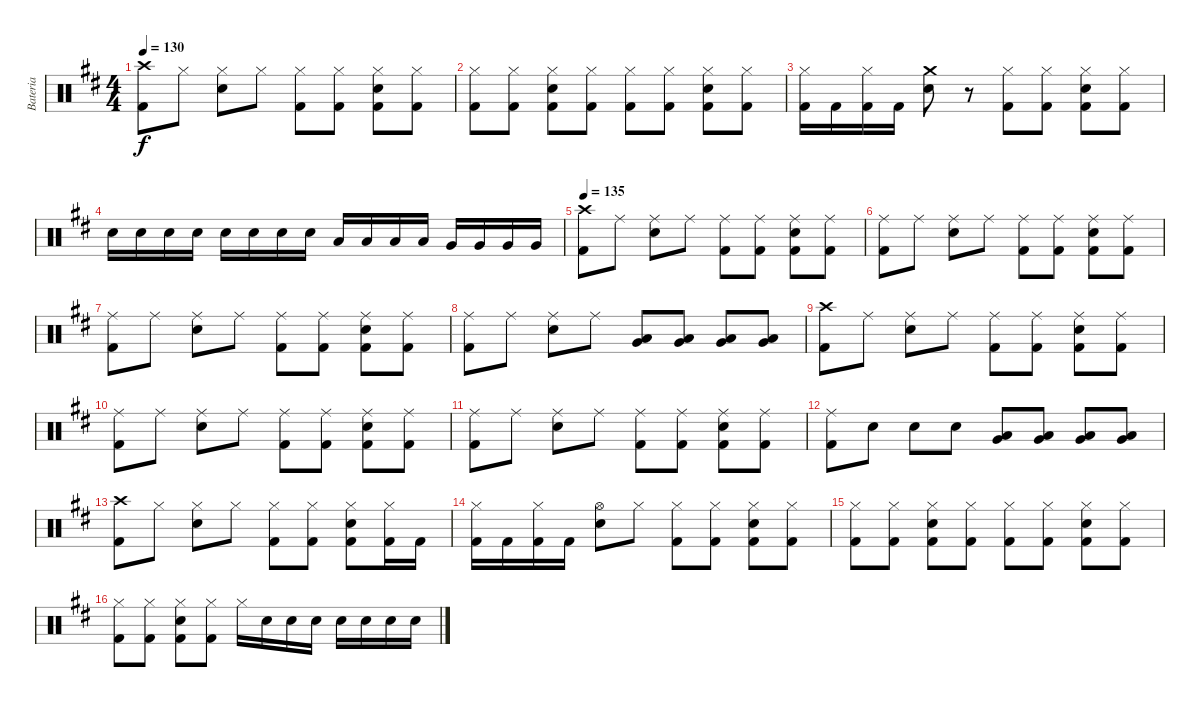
\track ("Bateria" "Bateria") {instrument percussion}
\staff {score}
\articulation defaults
\ts (4 4)
\tempo 130
\clef neutral
\ks d
("Crash high (hit)" "Kick (hit) 2").8{dy f} "Hi-Hat (closed)".8 ("Hi-Hat (closed)" "Snare (hit) 2").8 "Hi-Hat (closed)".8 ("Hi-Hat (closed)" "Kick (hit) 2").8 ("Hi-Hat (closed)" "Kick (hit) 2").8 ("Hi-Hat (closed)" "Snare (hit) 2" "Kick (hit) 2").8 ("Hi-Hat (closed)" "Kick (hit) 2").8 |
("Hi-Hat (closed)" "Kick (hit) 2").8 ("Hi-Hat (closed)" "Kick (hit) 2").8 ("Hi-Hat (closed)" "Snare (hit) 2" "Kick (hit) 2").8 ("Hi-Hat (closed)" "Kick (hit) 2").8 ("Hi-Hat (closed)" "Kick (hit) 2").8 ("Hi-Hat (closed)" "Kick (hit) 2").8 ("Hi-Hat (closed)" "Snare (hit) 2" "Kick (hit) 2").8 ("Hi-Hat (closed)" "Kick (hit) 2").8 |
("Hi-Hat (closed)" "Kick (hit) 2").16 "Kick (hit) 2".16 ("Hi-Hat (closed)" "Kick (hit) 2").16 "Kick (hit) 2".16 ("Crash medium (hit)" "Snare (hit) 2").8 r.8 ("Hi-Hat (closed)" "Kick (hit) 2").8 ("Hi-Hat (closed)" "Kick (hit) 2").8 ("Hi-Hat (closed)" "Snare (hit) 2" "Kick (hit) 2").8 ("Hi-Hat (closed)" "Kick (hit) 2").8 |
"Snare (hit) 2".16 "Snare (hit) 2".16 "Snare (hit) 2".16 "Snare (hit) 2".16 "Snare (hit) 2".16 "Snare (hit) 2".16 "Snare (hit) 2".16 "Snare (hit) 2".16 "Low Tom (hit)".16 "Low Tom (hit)".16 "Low Tom (hit)".16 "Low Tom (hit)".16 "Very Low Tom (hit)".16 "Very Low Tom (hit)".16 "Very Low Tom (hit)".16 "Very Low Tom (hit)".16 |
\tempo 135
("Crash high (hit)" "Kick (hit) 2").8 "Ride (middle)".8 ("Ride (middle)" "Snare (hit) 2").8 "Ride (middle)".8 ("Ride (middle)" "Kick (hit) 2").8 ("Ride (middle)" "Kick (hit) 2").8 ("Ride (middle)" "Snare (hit) 2" "Kick (hit) 2").8 ("Ride (middle)" "Kick (hit) 2").8 |
("Ride (middle)" "Kick (hit) 2").8 "Ride (middle)".8 ("Ride (middle)" "Snare (hit) 2").8 "Ride (middle)".8 ("Ride (middle)" "Kick (hit) 2").8 ("Ride (middle)" "Kick (hit) 2").8 ("Ride (middle)" "Snare (hit) 2" "Kick (hit) 2").8 ("Ride (middle)" "Kick (hit) 2").8 |
("Ride (middle)" "Kick (hit) 2").8 "Ride (middle)".8 ("Ride (middle)" "Snare (hit) 2").8 "Ride (middle)".8 ("Ride (middle)" "Kick (hit) 2").8 ("Ride (middle)" "Kick (hit) 2").8 ("Ride (middle)" "Snare (hit) 2" "Kick (hit) 2").8 ("Ride (middle)" "Kick (hit) 2").8 |
("Ride (middle)" "Kick (hit) 2").8 "Ride (middle)".8 ("Ride (middle)" "Snare (hit) 2").8 "Ride (middle)".8 ("Low Tom (hit)" "Very Low Tom (hit)").8 ("Low Tom (hit)" "Very Low Tom (hit)").8 ("Low Tom (hit)" "Very Low Tom (hit)").8 ("Low Tom (hit)" "Very Low Tom (hit)").8 |
("Crash high (hit)" "Kick (hit) 2").8 "Ride (middle)".8 ("Ride (middle)" "Snare (hit) 2").8 "Ride (middle)".8 ("Ride (middle)" "Kick (hit) 2").8 ("Ride (middle)" "Kick (hit) 2").8 ("Ride (middle)" "Snare (hit) 2" "Kick (hit) 2").8 ("Ride (middle)" "Kick (hit) 2").8 |
("Ride (middle)" "Kick (hit) 2").8 "Ride (middle)".8 ("Ride (middle)" "Snare (hit) 2").8 "Ride (middle)".8 ("Ride (middle)" "Kick (hit) 2").8 ("Ride (middle)" "Kick (hit) 2").8 ("Ride (middle)" "Snare (hit) 2" "Kick (hit) 2").8 ("Ride (middle)" "Kick (hit) 2").8 |
("Ride (middle)" "Kick (hit) 2").8 "Ride (middle)".8 ("Ride (middle)" "Snare (hit) 2").8 "Ride (middle)".8 ("Ride (middle)" "Kick (hit) 2").8 ("Ride (middle)" "Kick (hit) 2").8 ("Ride (middle)" "Snare (hit) 2" "Kick (hit) 2").8 ("Ride (middle)" "Kick (hit) 2").8 |
("Ride (middle)" "Kick (hit) 2").8 "Snare (hit) 2".8 "Snare (hit) 2".8 "Snare (hit) 2".8 ("Low Tom (hit)" "Very Low Tom (hit)").8 ("Low Tom (hit)" "Very Low Tom (hit)").8 ("Low Tom (hit)" "Very Low Tom (hit)").8 ("Low Tom (hit)" "Very Low Tom (hit)").8 |
("Crash high (hit)" "Kick (hit) 2").8 "Hi-Hat (closed)".8 ("Hi-Hat (closed)" "Snare (hit) 2").8 "Hi-Hat (closed)".8 ("Hi-Hat (closed)" "Kick (hit) 2").8 ("Hi-Hat (closed)" "Kick (hit) 2").8 ("Hi-Hat (closed)" "Snare (hit) 2" "Kick (hit) 2").8 ("Hi-Hat (closed)" "Kick (hit) 2").16 "Kick (hit) 2".16 |
("Hi-Hat (closed)" "Kick (hit) 2").16 "Kick (hit) 2".16 ("Hi-Hat (closed)" "Kick (hit) 2").16 "Kick (hit) 2".16 ("Hi-Hat (open)" "Snare (hit) 2").8 "Hi-Hat (closed)".8 ("Hi-Hat (closed)" "Kick (hit) 2").8 ("Hi-Hat (closed)" "Kick (hit) 2").8 ("Hi-Hat (closed)" "Snare (hit) 2" "Kick (hit) 2").8 ("Hi-Hat (closed)" "Kick (hit) 2").8 |
("Hi-Hat (closed)" "Kick (hit) 2").8 ("Hi-Hat (closed)" "Kick (hit) 2").8 ("Hi-Hat (closed)" "Snare (hit) 2" "Kick (hit) 2").8 ("Hi-Hat (closed)" "Kick (hit) 2").8 ("Hi-Hat (closed)" "Kick (hit) 2").8 ("Hi-Hat (closed)" "Kick (hit) 2").8 ("Hi-Hat (closed)" "Snare (hit) 2" "Kick (hit) 2").8 ("Hi-Hat (closed)" "Kick (hit) 2").8 |
("Hi-Hat (closed)" "Kick (hit) 2").8 ("Hi-Hat (closed)" "Kick (hit) 2").8 ("Hi-Hat (closed)" "Snare (hit) 2" "Kick (hit) 2").8 ("Hi-Hat (closed)" "Kick (hit) 2").8 "Hi-Hat (closed)".16 "Snare (hit) 2".16 "Snare (hit) 2".16 "Snare (hit) 2".16 "Snare (hit) 2".16 "Snare (hit) 2".16 "Snare (hit) 2".16 "Snare (hit) 2".16
